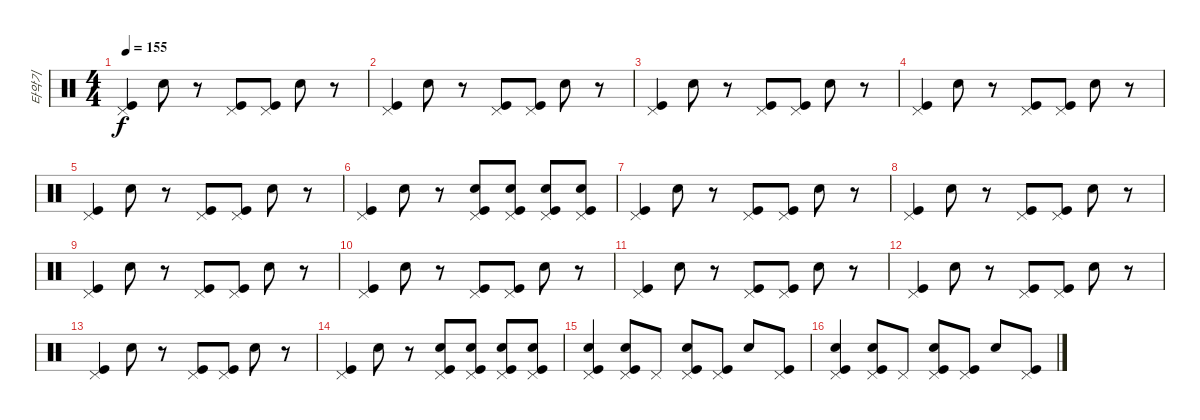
\track ("타악기" "타악기") {instrument percussion}
\staff {score}
\articulation defaults
\ts (4 4)
\tempo 155
\clef neutral
\ks c
("Pedal Hi-Hat (hit)" "Kick (hit)").4{dy f} "Electric Snare (hit)".8 r.8 ("Pedal Hi-Hat (hit)" "Kick (hit)").8 ("Pedal Hi-Hat (hit)" "Kick (hit)").8 "Electric Snare (hit)".8 r.8 |
("Pedal Hi-Hat (hit)" "Kick (hit)").4 "Electric Snare (hit)".8 r.8 ("Pedal Hi-Hat (hit)" "Kick (hit)").8 ("Pedal Hi-Hat (hit)" "Kick (hit)").8 "Electric Snare (hit)".8 r.8 |
("Pedal Hi-Hat (hit)" "Kick (hit)").4 "Electric Snare (hit)".8 r.8 ("Pedal Hi-Hat (hit)" "Kick (hit)").8 ("Pedal Hi-Hat (hit)" "Kick (hit)").8 "Electric Snare (hit)".8 r.8 |
("Pedal Hi-Hat (hit)" "Kick (hit)").4 "Electric Snare (hit)".8 r.8 ("Pedal Hi-Hat (hit)" "Kick (hit)").8 ("Pedal Hi-Hat (hit)" "Kick (hit)").8 "Electric Snare (hit)".8 r.8 |
("Pedal Hi-Hat (hit)" "Kick (hit)").4 "Electric Snare (hit)".8 r.8 ("Pedal Hi-Hat (hit)" "Kick (hit)").8 ("Pedal Hi-Hat (hit)" "Kick (hit)").8 "Electric Snare (hit)".8 r.8 |
("Pedal Hi-Hat (hit)" "Kick (hit)").4 "Electric Snare (hit)".8 r.8 ("Pedal Hi-Hat (hit)" "Electric Snare (hit)" "Kick (hit)").8 ("Pedal Hi-Hat (hit)" "Electric Snare (hit)" "Kick (hit)").8 ("Pedal Hi-Hat (hit)" "Electric Snare (hit)" "Kick (hit)").8 ("Pedal Hi-Hat (hit)" "Electric Snare (hit)" "Kick (hit)").8 |
("Pedal Hi-Hat (hit)" "Kick (hit)").4 "Electric Snare (hit)".8 r.8 ("Pedal Hi-Hat (hit)" "Kick (hit)").8 ("Pedal Hi-Hat (hit)" "Kick (hit)").8 "Electric Snare (hit)".8 r.8 |
("Pedal Hi-Hat (hit)" "Kick (hit)").4 "Electric Snare (hit)".8 r.8 ("Pedal Hi-Hat (hit)" "Kick (hit)").8 ("Pedal Hi-Hat (hit)" "Kick (hit)").8 "Electric Snare (hit)".8 r.8 |
("Pedal Hi-Hat (hit)" "Kick (hit)").4 "Electric Snare (hit)".8 r.8 ("Pedal Hi-Hat (hit)" "Kick (hit)").8 ("Pedal Hi-Hat (hit)" "Kick (hit)").8 "Electric Snare (hit)".8 r.8 |
("Pedal Hi-Hat (hit)" "Kick (hit)").4 "Electric Snare (hit)".8 r.8 ("Pedal Hi-Hat (hit)" "Kick (hit)").8 ("Pedal Hi-Hat (hit)" "Kick (hit)").8 "Electric Snare (hit)".8 r.8 |
("Pedal Hi-Hat (hit)" "Kick (hit)").4 "Electric Snare (hit)".8 r.8 ("Pedal Hi-Hat (hit)" "Kick (hit)").8 ("Pedal Hi-Hat (hit)" "Kick (hit)").8 "Electric Snare (hit)".8 r.8 |
("Pedal Hi-Hat (hit)" "Kick (hit)").4 "Electric Snare (hit)".8 r.8 ("Pedal Hi-Hat (hit)" "Kick (hit)").8 ("Pedal Hi-Hat (hit)" "Kick (hit)").8 "Electric Snare (hit)".8 r.8 |
("Pedal Hi-Hat (hit)" "Kick (hit)").4 "Electric Snare (hit)".8 r.8 ("Pedal Hi-Hat (hit)" "Kick (hit)").8 ("Pedal Hi-Hat (hit)" "Kick (hit)").8 "Electric Snare (hit)".8 r.8 |
("Pedal Hi-Hat (hit)" "Kick (hit)").4 "Electric Snare (hit)".8 r.8 ("Pedal Hi-Hat (hit)" "Electric Snare (hit)" "Kick (hit)").8 ("Pedal Hi-Hat (hit)" "Electric Snare (hit)" "Kick (hit)").8 ("Pedal Hi-Hat (hit)" "Electric Snare (hit)" "Kick (hit)").8 ("Pedal Hi-Hat (hit)" "Electric Snare (hit)" "Kick (hit)").8 |
("Pedal Hi-Hat (hit)" "Snare (hit) 2" "Kick (hit)").4 ("Pedal Hi-Hat (hit)" "Electric Snare (hit)" "Kick (hit)").8 "Pedal Hi-Hat (hit)".8 ("Pedal Hi-Hat (hit)" "Snare (hit) 2" "Kick (hit)").8 ("Pedal Hi-Hat (hit)" "Kick (hit)").8 "Electric Snare (hit)".8 ("Pedal Hi-Hat (hit)" "Kick (hit)").8 |
("Pedal Hi-Hat (hit)" "Snare (hit) 2" "Kick (hit)").4 ("Pedal Hi-Hat (hit)" "Electric Snare (hit)" "Kick (hit)").8 "Pedal Hi-Hat (hit)".8 ("Pedal Hi-Hat (hit)" "Snare (hit) 2" "Kick (hit)").8 ("Pedal Hi-Hat (hit)" "Kick (hit)").8 "Electric Snare (hit)".8 ("Pedal Hi-Hat (hit)" "Kick (hit)").8
